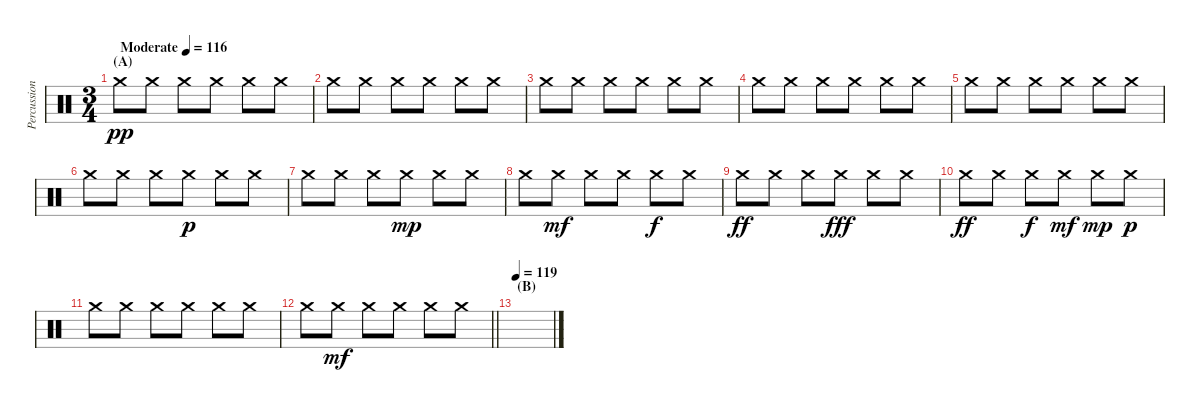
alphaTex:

\track ("Percussion 2" "Percussion") {instrument percussion}
\staff {score}
\articulation defaults
\ts (3 4)
\section ("" "(A)")
\tempo (116 "Moderate")
\clef neutral
\ks c "Crash medium (hit)".8{dy pp} "Crash medium (hit)".8 "Crash medium (hit)".8 "Crash medium (hit)".8 "Crash medium (hit)".8 "Crash medium (hit)".8
|
"Crash medium (hit)".8 "Crash medium (hit)".8 "Crash medium (hit)".8 "Crash medium (hit)".8 "Crash medium (hit)".8 "Crash medium (hit)".8 |
"Crash medium (hit)".8 "Crash medium (hit)".8 "Crash medium (hit)".8 "Crash medium (hit)".8 "Crash medium (hit)".8 "Crash medium (hit)".8 |
"Crash medium (hit)".8 "Crash medium (hit)".8 "Crash medium (hit)".8 "Crash medium (hit)".8 "Crash medium (hit)".8 "Crash medium (hit)".8 |
"Crash medium (hit)".8 "Crash medium (hit)".8 "Crash medium (hit)".8 "Crash medium (hit)".8 "Crash medium (hit)".8 "Crash medium (hit)".8 |
"Crash medium (hit)".8 "Crash medium (hit)".8 "Crash medium (hit)".8 "Crash medium (hit)".8{dy p} "Crash medium (hit)".8 "Crash medium (hit)".8 |
"Crash medium (hit)".8 "Crash medium (hit)".8 "Crash medium (hit)".8 "Crash medium (hit)".8{dy mp} "Crash medium (hit)".8 "Crash medium (hit)".8 |
"Crash medium (hit)".8 "Crash medium (hit)".8{dy mf} "Crash medium (hit)".8 "Crash medium (hit)".8 "Crash medium (hit)".8{dy f} "Crash medium (hit)".8 |
"Crash medium (hit)".8{dy ff} "Crash medium (hit)".8 "Crash medium (hit)".8 "Crash medium (hit)".8{dy fff} "Crash medium (hit)".8 "Crash medium (hit)".8 |
"Crash medium (hit)".8{dy ff} "Crash medium (hit)".8 "Crash medium (hit)".8{dy f} "Crash medium (hit)".8{dy mf} "Crash medium (hit)".8{dy mp} "Crash medium (hit)".8{dy p} |
"Crash medium (hit)".8 "Crash medium (hit)".8 "Crash medium (hit)".8 "Crash medium (hit)".8 "Crash medium (hit)".8 "Crash medium (hit)".8 |
\barLineRight lightlight "Crash medium (hit)".8 "Crash medium (hit)".8{dy mf} "Crash medium (hit)".8 "Crash medium (hit)".8 "Crash medium (hit)".8 "Crash medium (hit)".8
|
\section ("" "(B)")
\tempo 119
